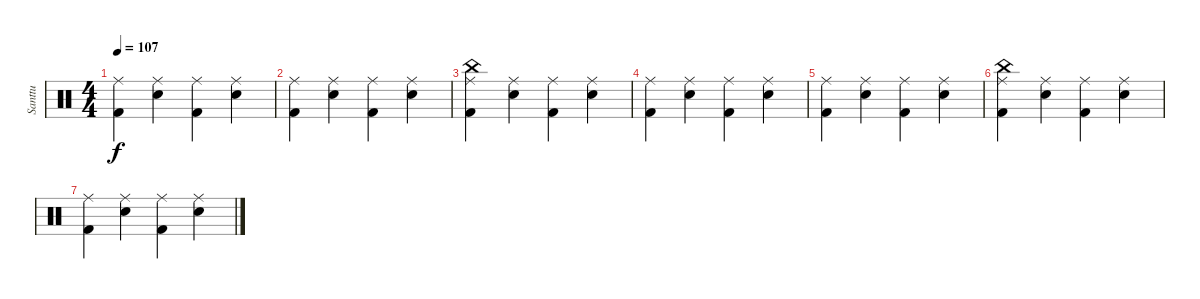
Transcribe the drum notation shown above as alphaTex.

\track ("Santtu" "Santtu") {instrument percussion}
\staff {score}
\articulation defaults
\ts (4 4)
\tempo 107
\clef neutral
\ks c
("Ride (middle)" "Kick (hit) 2").4{dy f} ("Ride (middle)" "Snare (hit) 2").4 ("Ride (middle)" "Kick (hit) 2").4 ("Ride (middle)" "Snare (hit) 2").4 |
("Ride (middle)" "Kick (hit) 2").4 ("Ride (middle)" "Snare (hit) 2").4 ("Ride (middle)" "Kick (hit) 2").4 ("Ride (middle)" "Snare (hit) 2").4 |
("Ride (middle)" "Kick (hit) 2" "China (hit)").4 ("Ride (middle)" "Snare (hit) 2").4 ("Ride (middle)" "Kick (hit) 2").4 ("Ride (middle)" "Snare (hit) 2").4 |
("Ride (middle)" "Kick (hit) 2").4 ("Ride (middle)" "Snare (hit) 2").4 ("Ride (middle)" "Kick (hit) 2").4 ("Ride (middle)" "Snare (hit) 2").4 |
("Ride (middle)" "Kick (hit) 2").4 ("Ride (middle)" "Snare (hit) 2").4 ("Ride (middle)" "Kick (hit) 2").4 ("Ride (middle)" "Snare (hit) 2").4 |
("Ride (middle)" "Kick (hit) 2" "China (hit)").4 ("Ride (middle)" "Snare (hit) 2").4 ("Ride (middle)" "Kick (hit) 2").4 ("Ride (middle)" "Snare (hit) 2").4 |
("Ride (middle)" "Kick (hit) 2").4 ("Ride (middle)" "Snare (hit) 2").4 ("Ride (middle)" "Kick (hit) 2").4 ("Ride (middle)" "Snare (hit) 2").4
